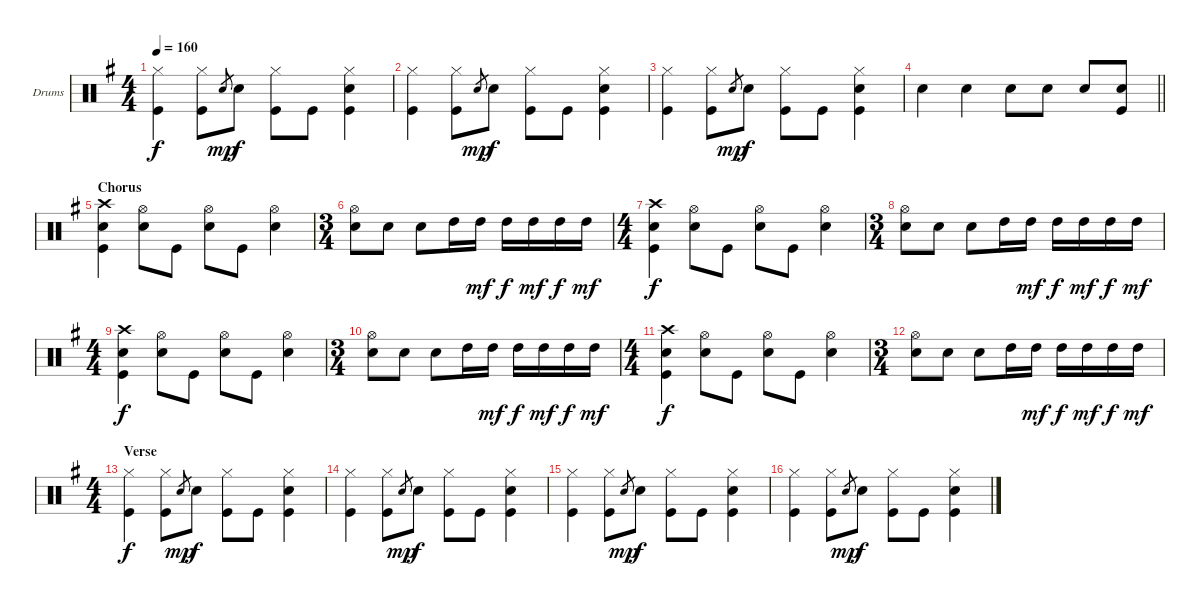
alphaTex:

\defaultSystemsLayout 4
\bracketExtendMode groupsimilarinstruments
\firstSystemTrackNameOrientation horizontal
\otherSystemsTrackNameOrientation horizontal
\track ("Drumkit" "Drums") {instrument percussion}
\staff {score}
\articulation defaults
\ts (4 4)
\tempo 160
\clef neutral
\scale
1.04288
\ks g
("Hi-Hat (closed)" "Kick (hit)").4{dy f} ("Hi-Hat (closed)" "Kick (hit)").8 "Snare (hit) 2".8{gr dy mp} "Snare (hit) 2".8{dy f} ("Hi-Hat (closed)" "Kick (hit)").8 "Kick (hit)".8 ("Hi-Hat (closed)" "Snare (hit) 2" "Kick (hit)").4 |
\scale
0.957125 ("Hi-Hat (closed)" "Kick (hit)").4 ("Hi-Hat (closed)" "Kick (hit)").8 "Snare (hit) 2".8{gr dy mp} "Snare (hit) 2".8{dy f} ("Hi-Hat (closed)" "Kick (hit)").8 "Kick (hit)".8 ("Hi-Hat (closed)" "Snare (hit) 2" "Kick (hit)").4 |
\scale
1.04288 ("Hi-Hat (closed)" "Kick (hit)").4 ("Hi-Hat (closed)" "Kick (hit)").8 "Snare (hit) 2".8{gr dy mp} "Snare (hit) 2".8{dy f} ("Hi-Hat (closed)" "Kick (hit)").8 "Kick (hit)".8 ("Hi-Hat (closed)" "Snare (hit) 2" "Kick (hit)").4 |
\scale
0.957125
\barLineRight lightlight "Snare (hit) 2".4 "Snare (hit) 2".4 "Snare (hit) 2".8 "Snare (hit) 2".8 "Snare (hit) 2".8
("Snare (hit) 2" "Kick (hit)").8 |
\section ("" "Chorus")
\scale
1.04288 ("Crash high (hit)" "Snare (hit) 2" "Kick (hit)").4 ("Hi-Hat (open)" "Snare (hit) 2").8 "Kick (hit)".8 ("Hi-Hat (open)" "Snare (hit) 2").8 "Kick (hit)".8 ("Hi-Hat (open)" "Snare (hit) 2").4 |
\ts (3 4)
\scale
0.957125 ("Hi-Hat (open)" "Snare (hit) 2").8 "Snare (hit) 2".8 "Snare (hit) 2".8 "High Tom (hit)".16 "High Tom (hit)".16{dy mf} "High Tom (hit)".16{dy f} "High Tom (hit)".16{dy mf} "High Tom (hit)".16{dy f} "High Tom (hit)".16{dy mf} |
\ts (4 4)
\scale
1.07314 ("Crash high (hit)" "Snare (hit) 2" "Kick (hit)").4{dy f} ("Hi-Hat (open)" "Snare (hit) 2").8 "Kick (hit)".8 ("Hi-Hat (open)" "Snare (hit) 2").8 "Kick (hit)".8 ("Hi-Hat (open)" "Snare (hit) 2").4 |
\ts (3 4)
\scale
0.92686 ("Hi-Hat (open)" "Snare (hit) 2").8 "Snare (hit) 2".8 "Snare (hit) 2".8 "High Tom (hit)".16 "High Tom (hit)".16{dy mf} "High Tom (hit)".16{dy f} "High Tom (hit)".16{dy mf} "High Tom (hit)".16{dy f} "High Tom (hit)".16{dy mf} |
\ts (4 4)
\scale
1.07314 ("Crash high (hit)" "Snare (hit) 2" "Kick (hit)").4{dy f} ("Hi-Hat (open)" "Snare (hit) 2").8 "Kick (hit)".8 ("Hi-Hat (open)" "Snare (hit) 2").8 "Kick (hit)".8 ("Hi-Hat (open)" "Snare (hit) 2").4 |
\ts (3 4)
\scale
0.92686 ("Hi-Hat (open)" "Snare (hit) 2").8 "Snare (hit) 2".8 "Snare (hit) 2".8 "High Tom (hit)".16 "High Tom (hit)".16{dy mf} "High Tom (hit)".16{dy f} "High Tom (hit)".16{dy mf} "High Tom (hit)".16{dy f} "High Tom (hit)".16{dy mf} |
\ts (4 4)
\scale
1.07314 ("Crash high (hit)" "Snare (hit) 2" "Kick (hit)").4{dy f} ("Hi-Hat (open)" "Snare (hit) 2").8 "Kick (hit)".8 ("Hi-Hat (open)" "Snare (hit) 2").8 "Kick (hit)".8 ("Hi-Hat (open)" "Snare (hit) 2").4 |
\ts (3 4)
\scale
0.92686 ("Hi-Hat (open)" "Snare (hit) 2").8 "Snare (hit) 2".8 "Snare (hit) 2".8 "High Tom (hit)".16 "High Tom (hit)".16{dy mf} "High Tom (hit)".16{dy f} "High Tom (hit)".16{dy mf} "High Tom (hit)".16{dy f} "High Tom (hit)".16{dy mf} |
\ts (4 4)
\section ("" "Verse")
\scale
1.07314 ("Hi-Hat (closed)" "Kick (hit)").4{dy f} ("Hi-Hat (closed)" "Kick (hit)").8 "Snare (hit) 2".8{gr dy mp} "Snare (hit) 2".8{dy f} ("Hi-Hat (closed)" "Kick (hit)").8 "Kick (hit)".8 ("Hi-Hat (closed)" "Snare (hit) 2" "Kick (hit)").4 |
\scale
0.92686 ("Hi-Hat (closed)" "Kick (hit)").4 ("Hi-Hat (closed)" "Kick (hit)").8 "Snare (hit) 2".8{gr dy mp} "Snare (hit) 2".8{dy f} ("Hi-Hat (closed)" "Kick (hit)").8 "Kick (hit)".8 ("Hi-Hat (closed)" "Snare (hit) 2" "Kick (hit)").4 |
\scale
1.04288 ("Hi-Hat (closed)" "Kick (hit)").4 ("Hi-Hat (closed)" "Kick (hit)").8 "Snare (hit) 2".8{gr dy mp} "Snare (hit) 2".8{dy f} ("Hi-Hat (closed)" "Kick (hit)").8 "Kick (hit)".8 ("Hi-Hat (closed)" "Snare (hit) 2" "Kick (hit)").4 |
\scale
0.957125 ("Hi-Hat (closed)" "Kick (hit)").4 ("Hi-Hat (closed)" "Kick (hit)").8 "Snare (hit) 2".8{gr dy mp} "Snare (hit) 2".8{dy f} ("Hi-Hat (closed)" "Kick (hit)").8 "Kick (hit)".8 ("Hi-Hat (closed)" "Snare (hit) 2" "Kick (hit)").4
